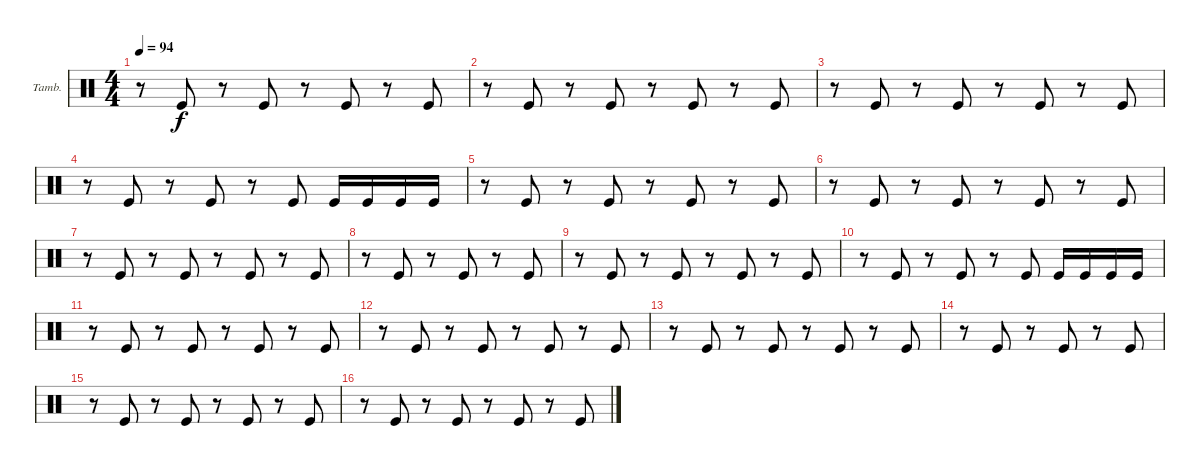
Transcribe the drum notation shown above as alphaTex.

\defaultSystemsLayout 4
\bracketExtendMode groupsimilarinstruments
\firstSystemTrackNameOrientation horizontal
\otherSystemsTrackNameOrientation horizontal
\track ("Tambourine" "Tamb.") {instrument percussion}
\staff {score}
\articulation defaults
\ts (4 4)
\tempo 94
\clef neutral
\scale
0.333333
\ks c
r.8{dy f} "Kick (hit)".8 r.8 "Kick (hit)".8 r.8 "Kick (hit)".8 r.8 "Kick (hit)".8 |
\scale
0.333333 r.8 "Kick (hit)".8 r.8 "Kick (hit)".8 r.8 "Kick (hit)".8 r.8 "Kick (hit)".8 |
\scale
0.333333 r.8 "Kick (hit)".8 r.8 "Kick (hit)".8 r.8 "Kick (hit)".8 r.8 "Kick (hit)".8 |
\scale
0.333333 r.8 "Kick (hit)".8 r.8 "Kick (hit)".8 r.8 "Kick (hit)".8 "Kick (hit)".16 "Kick (hit)".16 "Kick (hit)".16 "Kick (hit)".16 |
\scale
0.333333 r.8 "Kick (hit)".8 r.8 "Kick (hit)".8 r.8 "Kick (hit)".8 r.8 "Kick (hit)".8 |
\scale
0.333333 r.8 "Kick (hit)".8 r.8 "Kick (hit)".8 r.8 "Kick (hit)".8 r.8 "Kick (hit)".8 |
\scale
0.333333 r.8 "Kick (hit)".8 r.8 "Kick (hit)".8 r.8 "Kick (hit)".8 r.8 "Kick (hit)".8 |
\scale
0.333333 r.8 "Kick (hit)".8 r.8 "Kick (hit)".8 r.8 "Kick (hit)".8 |
\scale
0.333333 r.8 "Kick (hit)".8 r.8 "Kick (hit)".8 r.8 "Kick (hit)".8 r.8 "Kick (hit)".8 |
\scale
0.333333 r.8 "Kick (hit)".8 r.8 "Kick (hit)".8 r.8 "Kick (hit)".8 "Kick (hit)".16 "Kick (hit)".16 "Kick (hit)".16 "Kick (hit)".16 |
\scale
0.333333 r.8 "Kick (hit)".8 r.8 "Kick (hit)".8 r.8 "Kick (hit)".8 r.8 "Kick (hit)".8 |
\scale
0.333333 r.8 "Kick (hit)".8 r.8 "Kick (hit)".8 r.8 "Kick (hit)".8 r.8 "Kick (hit)".8 |
\scale
0.333333 r.8 "Kick (hit)".8 r.8 "Kick (hit)".8 r.8 "Kick (hit)".8 r.8 "Kick (hit)".8 |
\scale
0.333333 r.8 "Kick (hit)".8 r.8 "Kick (hit)".8 r.8 "Kick (hit)".8 |
\scale
0.333333 r.8 "Kick (hit)".8 r.8 "Kick (hit)".8 r.8 "Kick (hit)".8 r.8 "Kick (hit)".8 |
\scale
0.333333 r.8 "Kick (hit)".8 r.8 "Kick (hit)".8 r.8 "Kick (hit)".8 r.8 "Kick (hit)".8
